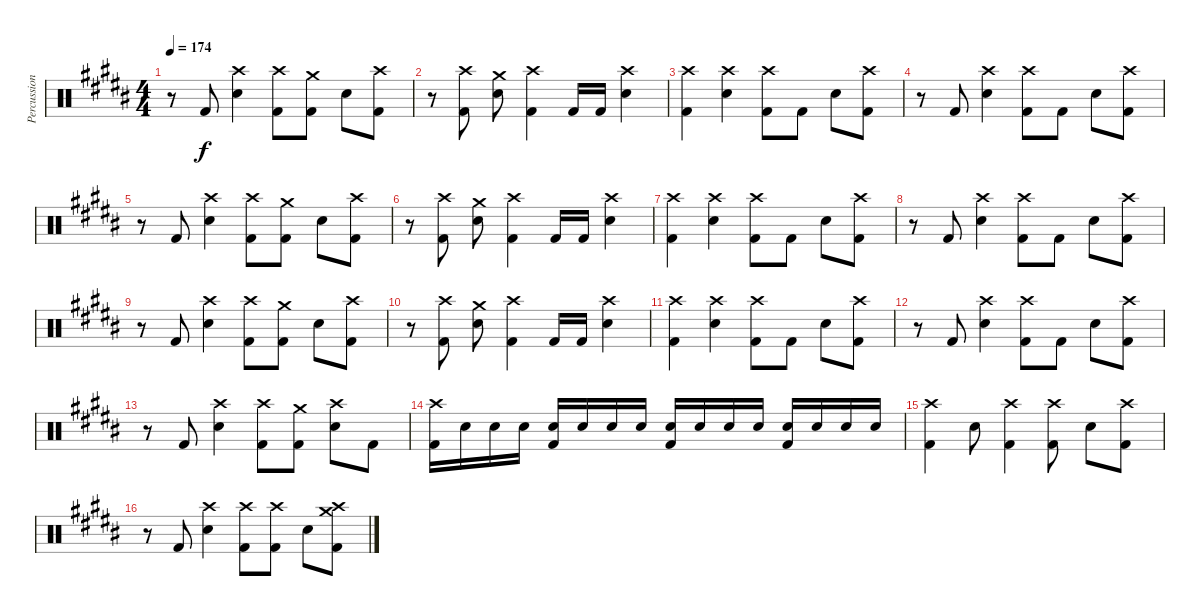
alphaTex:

\track ("Percussion" "Percussion") {instrument percussion}
\staff {score}
\articulation defaults
\ts (4 4)
\tempo 174
\clef neutral
\ks b
r.8{dy f} "Kick (hit) 2".8 ("Crash high (hit)" "Electric Snare (hit)").4 ("Crash high (hit)" "Kick (hit) 2").8 ("Crash medium (hit)" "Kick (hit) 2").8 "Electric Snare (hit)".8 ("Crash high (hit)" "Kick (hit) 2").8 |
r.8 ("Crash high (hit)" "Kick (hit) 2").8 ("Crash medium (hit)" "Electric Snare (hit)").8 ("Crash high (hit)" "Kick (hit) 2").4 "Kick (hit) 2".16 "Kick (hit) 2".16 ("Crash high (hit)" "Electric Snare (hit)").4 |
("Crash high (hit)" "Kick (hit) 2").4 ("Crash high (hit)" "Electric Snare (hit)").4 ("Crash high (hit)" "Kick (hit) 2").8 "Kick (hit) 2".8 "Electric Snare (hit)".8 ("Crash high (hit)" "Kick (hit) 2").8 |
r.8 "Kick (hit) 2".8 ("Crash high (hit)" "Electric Snare (hit)").4 ("Crash high (hit)" "Kick (hit) 2").8 "Kick (hit) 2".8 "Electric Snare (hit)".8 ("Crash high (hit)" "Kick (hit) 2").8 |
r.8 "Kick (hit) 2".8 ("Crash high (hit)" "Electric Snare (hit)").4 ("Crash high (hit)" "Kick (hit) 2").8 ("Crash medium (hit)" "Kick (hit) 2").8 "Electric Snare (hit)".8 ("Crash high (hit)" "Kick (hit) 2").8 |
r.8 ("Crash high (hit)" "Kick (hit) 2").8 ("Crash medium (hit)" "Electric Snare (hit)").8 ("Crash high (hit)" "Kick (hit) 2").4 "Kick (hit) 2".16 "Kick (hit) 2".16 ("Crash high (hit)" "Electric Snare (hit)").4 |
("Crash high (hit)" "Kick (hit) 2").4 ("Crash high (hit)" "Electric Snare (hit)").4 ("Crash high (hit)" "Kick (hit) 2").8 "Kick (hit) 2".8 "Electric Snare (hit)".8 ("Crash high (hit)" "Kick (hit) 2").8 |
r.8 "Kick (hit) 2".8 ("Crash high (hit)" "Electric Snare (hit)").4 ("Crash high (hit)" "Kick (hit) 2").8 "Kick (hit) 2".8 "Electric Snare (hit)".8 ("Crash high (hit)" "Kick (hit) 2").8 |
r.8 "Kick (hit) 2".8 ("Crash high (hit)" "Electric Snare (hit)").4 ("Crash high (hit)" "Kick (hit) 2").8 ("Crash medium (hit)" "Kick (hit) 2").8 "Electric Snare (hit)".8 ("Crash high (hit)" "Kick (hit) 2").8 |
r.8 ("Crash high (hit)" "Kick (hit) 2").8 ("Crash medium (hit)" "Electric Snare (hit)").8 ("Crash high (hit)" "Kick (hit) 2").4 "Kick (hit) 2".16 "Kick (hit) 2".16 ("Crash high (hit)" "Electric Snare (hit)").4 |
("Crash high (hit)" "Kick (hit) 2").4 ("Crash high (hit)" "Electric Snare (hit)").4 ("Crash high (hit)" "Kick (hit) 2").8 "Kick (hit) 2".8 "Electric Snare (hit)".8 ("Crash high (hit)" "Kick (hit) 2").8 |
r.8 "Kick (hit) 2".8 ("Crash high (hit)" "Electric Snare (hit)").4 ("Crash high (hit)" "Kick (hit) 2").8 "Kick (hit) 2".8 "Electric Snare (hit)".8 ("Crash high (hit)" "Kick (hit) 2").8 |
r.8 "Kick (hit) 2".8 ("Crash high (hit)" "Electric Snare (hit)").4 ("Crash high (hit)" "Kick (hit) 2").8 ("Crash medium (hit)" "Kick (hit) 2").8 ("Crash high (hit)" "Electric Snare (hit)").8 "Kick (hit) 2".8 |
("Crash high (hit)" "Kick (hit) 2").16 "Electric Snare (hit)".16 "Electric Snare (hit)".16 "Electric Snare (hit)".16 ("Electric Snare (hit)" "Kick (hit) 2").16 "Electric Snare (hit)".16 "Electric Snare (hit)".16 "Electric Snare (hit)".16 ("Electric Snare (hit)" "Kick (hit) 2").16 "Electric Snare (hit)".16 "Electric Snare (hit)".16 "Electric Snare (hit)".16 ("Electric Snare (hit)" "Kick (hit) 2").16 "Electric Snare (hit)".16 "Electric Snare (hit)".16 "Electric Snare (hit)".16 |
("Crash high (hit)" "Kick (hit) 2").4 "Electric Snare (hit)".8 ("Crash high (hit)" "Kick (hit) 2").4 ("Crash high (hit)" "Kick (hit) 2").8 "Electric Snare (hit)".8 ("Crash high (hit)" "Kick (hit) 2").8 |
r.8 "Kick (hit) 2".8 ("Crash high (hit)" "Electric Snare (hit)").4 ("Crash high (hit)" "Kick (hit) 2").8 ("Crash high (hit)" "Kick (hit) 2").8 "Electric Snare (hit)".8 ("Crash high (hit)" "Crash medium (hit)" "Kick (hit) 2").8
